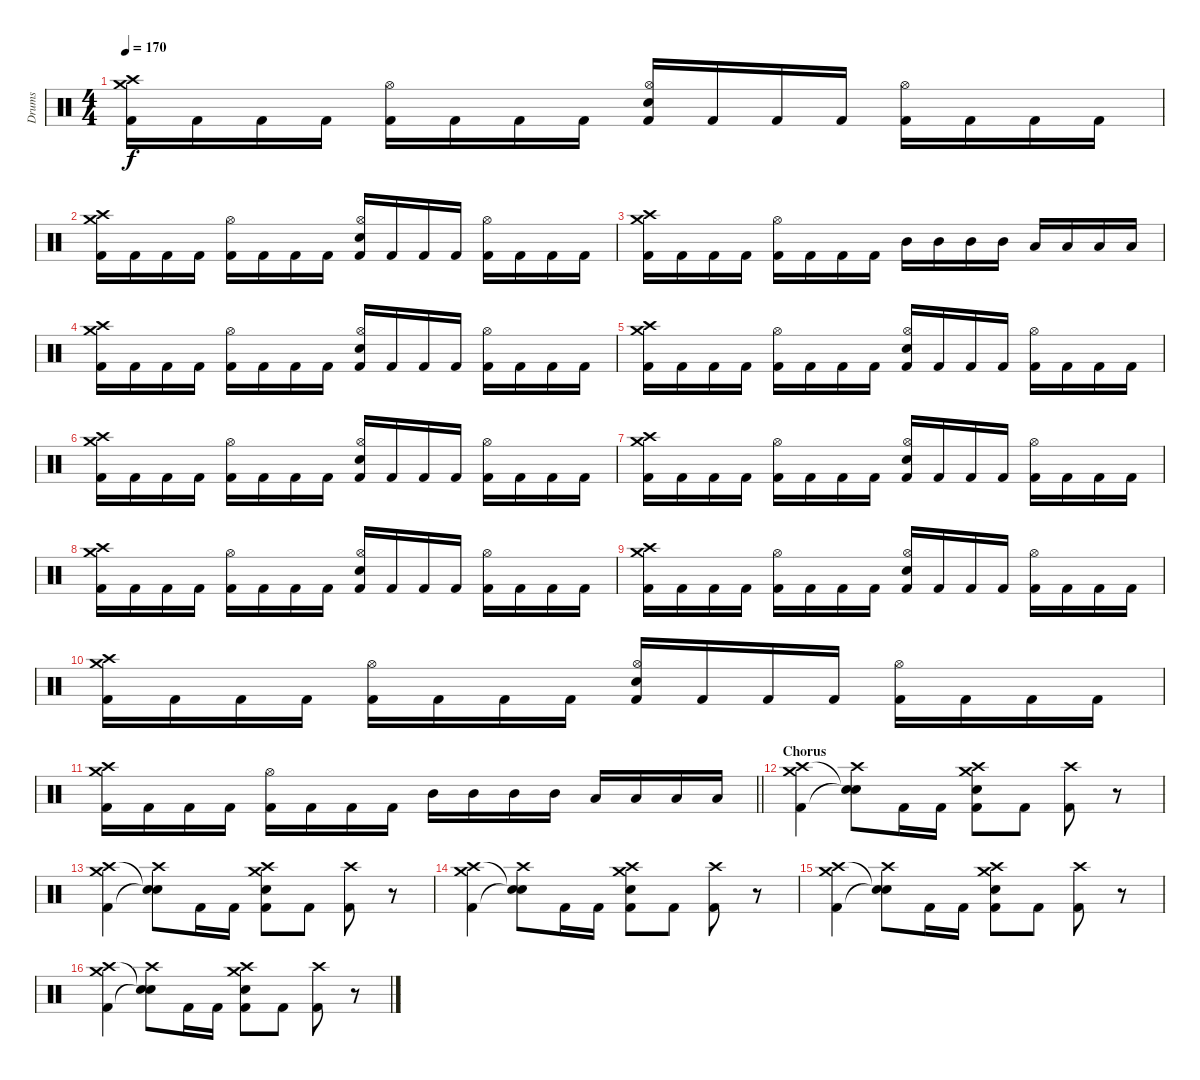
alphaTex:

\track ("Drums" "Drums") {instrument percussion}
\staff {score}
\articulation defaults
\ts (4 4)
\tempo 170
\clef neutral
\ks c
("Crash medium (hit)" "Crash high (hit)" "Kick (hit) 2").16{dy f} "Kick (hit) 2".16 "Kick (hit) 2".16 "Kick (hit) 2".16 ("Hi-Hat (open)" "Kick (hit) 2").16 "Kick (hit) 2".16 "Kick (hit) 2".16 "Kick (hit) 2".16 ("Hi-Hat (open)" "Snare (hit) 2" "Kick (hit) 2").16 "Kick (hit) 2".16 "Kick (hit) 2".16 "Kick (hit) 2".16 ("Hi-Hat (open)" "Kick (hit) 2").16 "Kick (hit) 2".16 "Kick (hit) 2".16 "Kick (hit) 2".16 |
("Crash medium (hit)" "Crash high (hit)" "Kick (hit) 2").16 "Kick (hit) 2".16 "Kick (hit) 2".16 "Kick (hit) 2".16 ("Hi-Hat (open)" "Kick (hit) 2").16 "Kick (hit) 2".16 "Kick (hit) 2".16 "Kick (hit) 2".16 ("Hi-Hat (open)" "Snare (hit) 2" "Kick (hit) 2").16 "Kick (hit) 2".16 "Kick (hit) 2".16 "Kick (hit) 2".16 ("Hi-Hat (open)" "Kick (hit) 2").16 "Kick (hit) 2".16 "Kick (hit) 2".16 "Kick (hit) 2".16 |
("Crash medium (hit)" "Crash high (hit)" "Kick (hit) 2").16 "Kick (hit) 2".16 "Kick (hit) 2".16 "Kick (hit) 2".16 ("Hi-Hat (open)" "Kick (hit) 2").16 "Kick (hit) 2".16 "Kick (hit) 2".16 "Kick (hit) 2".16 "Mid Tom (hit)".16 "Mid Tom (hit)".16 "Mid Tom (hit)".16 "Mid Tom (hit)".16 "Low Tom (hit)".16 "Low Tom (hit)".16 "Low Tom (hit)".16 "Low Tom (hit)".16 |
("Crash medium (hit)" "Crash high (hit)" "Kick (hit) 2").16 "Kick (hit) 2".16 "Kick (hit) 2".16 "Kick (hit) 2".16 ("Hi-Hat (open)" "Kick (hit) 2").16 "Kick (hit) 2".16 "Kick (hit) 2".16 "Kick (hit) 2".16 ("Hi-Hat (open)" "Snare (hit) 2" "Kick (hit) 2").16 "Kick (hit) 2".16 "Kick (hit) 2".16 "Kick (hit) 2".16 ("Hi-Hat (open)" "Kick (hit) 2").16 "Kick (hit) 2".16 "Kick (hit) 2".16 "Kick (hit) 2".16 |
("Crash medium (hit)" "Crash high (hit)" "Kick (hit) 2").16 "Kick (hit) 2".16 "Kick (hit) 2".16 "Kick (hit) 2".16 ("Hi-Hat (open)" "Kick (hit) 2").16 "Kick (hit) 2".16 "Kick (hit) 2".16 "Kick (hit) 2".16 ("Hi-Hat (open)" "Snare (hit) 2" "Kick (hit) 2").16 "Kick (hit) 2".16 "Kick (hit) 2".16 "Kick (hit) 2".16 ("Hi-Hat (open)" "Kick (hit) 2").16 "Kick (hit) 2".16 "Kick (hit) 2".16 "Kick (hit) 2".16 |
("Crash medium (hit)" "Crash high (hit)" "Kick (hit) 2").16 "Kick (hit) 2".16 "Kick (hit) 2".16 "Kick (hit) 2".16 ("Hi-Hat (open)" "Kick (hit) 2").16 "Kick (hit) 2".16 "Kick (hit) 2".16 "Kick (hit) 2".16 ("Hi-Hat (open)" "Snare (hit) 2" "Kick (hit) 2").16 "Kick (hit) 2".16 "Kick (hit) 2".16 "Kick (hit) 2".16 ("Hi-Hat (open)" "Kick (hit) 2").16 "Kick (hit) 2".16 "Kick (hit) 2".16 "Kick (hit) 2".16 |
("Crash medium (hit)" "Crash high (hit)" "Kick (hit) 2").16 "Kick (hit) 2".16 "Kick (hit) 2".16 "Kick (hit) 2".16 ("Hi-Hat (open)" "Kick (hit) 2").16 "Kick (hit) 2".16 "Kick (hit) 2".16 "Kick (hit) 2".16 ("Hi-Hat (open)" "Snare (hit) 2" "Kick (hit) 2").16 "Kick (hit) 2".16 "Kick (hit) 2".16 "Kick (hit) 2".16 ("Hi-Hat (open)" "Kick (hit) 2").16 "Kick (hit) 2".16 "Kick (hit) 2".16 "Kick (hit) 2".16 |
("Crash medium (hit)" "Crash high (hit)" "Kick (hit) 2").16 "Kick (hit) 2".16 "Kick (hit) 2".16 "Kick (hit) 2".16 ("Hi-Hat (open)" "Kick (hit) 2").16 "Kick (hit) 2".16 "Kick (hit) 2".16 "Kick (hit) 2".16 ("Hi-Hat (open)" "Snare (hit) 2" "Kick (hit) 2").16 "Kick (hit) 2".16 "Kick (hit) 2".16 "Kick (hit) 2".16 ("Hi-Hat (open)" "Kick (hit) 2").16 "Kick (hit) 2".16 "Kick (hit) 2".16 "Kick (hit) 2".16 |
("Crash medium (hit)" "Crash high (hit)" "Kick (hit) 2").16 "Kick (hit) 2".16 "Kick (hit) 2".16 "Kick (hit) 2".16 ("Hi-Hat (open)" "Kick (hit) 2").16 "Kick (hit) 2".16 "Kick (hit) 2".16 "Kick (hit) 2".16 ("Hi-Hat (open)" "Snare (hit) 2" "Kick (hit) 2").16 "Kick (hit) 2".16 "Kick (hit) 2".16 "Kick (hit) 2".16 ("Hi-Hat (open)" "Kick (hit) 2").16 "Kick (hit) 2".16 "Kick (hit) 2".16 "Kick (hit) 2".16 |
("Crash medium (hit)" "Crash high (hit)" "Kick (hit) 2").16 "Kick (hit) 2".16 "Kick (hit) 2".16 "Kick (hit) 2".16 ("Hi-Hat (open)" "Kick (hit) 2").16 "Kick (hit) 2".16 "Kick (hit) 2".16 "Kick (hit) 2".16 ("Hi-Hat (open)" "Snare (hit) 2" "Kick (hit) 2").16 "Kick (hit) 2".16 "Kick (hit) 2".16 "Kick (hit) 2".16 ("Hi-Hat (open)" "Kick (hit) 2").16 "Kick (hit) 2".16 "Kick (hit) 2".16 "Kick (hit) 2".16 |
\barLineRight lightlight
("Crash medium (hit)" "Crash high (hit)" "Kick (hit) 2").16 "Kick (hit) 2".16 "Kick (hit) 2".16 "Kick (hit) 2".16 ("Hi-Hat (open)" "Kick (hit) 2").16 "Kick (hit) 2".16 "Kick (hit) 2".16 "Kick (hit) 2".16 "Mid Tom (hit)".16 "Mid Tom (hit)".16 "Mid Tom (hit)".16 "Mid Tom (hit)".16 "Low Tom (hit)".16 "Low Tom (hit)".16 "Low Tom (hit)".16 "Low Tom (hit)".16 |
\section ("" "Chorus")
("Crash medium (hit)" "Crash high (hit)" "Kick (hit) 2").4 ("Crash high (hit)" "Snare (hit)"{t} "Snare (hit)"{t}).8 "Kick (hit) 2".16 "Kick (hit) 2".16 ("Crash high (hit)" "Snare (hit) 2" "Crash medium (hit)" "Kick (hit) 2").8 "Kick (hit) 2".8 ("Crash high (hit)" "Kick (hit) 2").8 r.8 |
("Crash medium (hit)" "Crash high (hit)" "Kick (hit) 2").4 ("Crash high (hit)" "Snare (hit)"{t} "Snare (hit)"{t}).8 "Kick (hit) 2".16 "Kick (hit) 2".16 ("Crash high (hit)" "Snare (hit) 2" "Crash medium (hit)" "Kick (hit) 2").8 "Kick (hit) 2".8 ("Crash high (hit)" "Kick (hit) 2").8 r.8 |
("Crash medium (hit)" "Crash high (hit)" "Kick (hit) 2").4 ("Crash high (hit)" "Snare (hit)"{t} "Snare (hit)"{t}).8 "Kick (hit) 2".16 "Kick (hit) 2".16 ("Crash high (hit)" "Snare (hit) 2" "Crash medium (hit)" "Kick (hit) 2").8 "Kick (hit) 2".8 ("Crash high (hit)" "Kick (hit) 2").8 r.8 |
("Crash medium (hit)" "Crash high (hit)" "Kick (hit) 2").4 ("Crash high (hit)" "Snare (hit)"{t} "Snare (hit)"{t}).8 "Kick (hit) 2".16 "Kick (hit) 2".16 ("Crash high (hit)" "Snare (hit) 2" "Crash medium (hit)" "Kick (hit) 2").8 "Kick (hit) 2".8 ("Crash high (hit)" "Kick (hit) 2").8 r.8 |
("Crash medium (hit)" "Crash high (hit)" "Kick (hit) 2").4 ("Crash high (hit)" "Snare (hit)"{t} "Snare (hit)"{t}).8 "Kick (hit) 2".16 "Kick (hit) 2".16 ("Crash high (hit)" "Snare (hit) 2" "Crash medium (hit)" "Kick (hit) 2").8 "Kick (hit) 2".8 ("Crash high (hit)" "Kick (hit) 2").8 r.8
